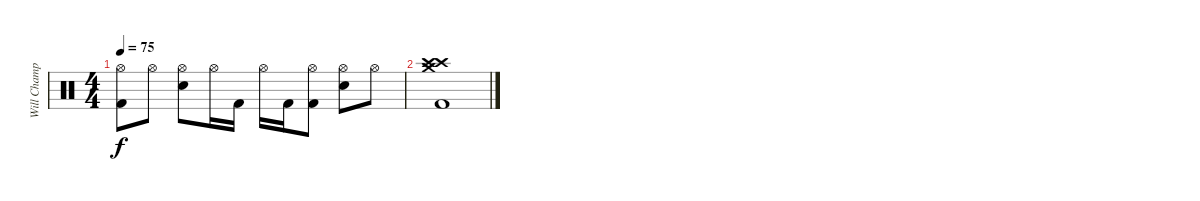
\track ("Will Champion(Drums)" "Will Champ") {instrument percussion}
\staff {score}
\articulation defaults
\ts (4 4)
\tempo 75
\clef neutral
\ks c
("Hi-Hat (open)" "Kick (hit) 2").8{dy f} "Hi-Hat (open)".8 ("Hi-Hat (open)" "Electric Snare (hit)").8 "Hi-Hat (open)".16 "Kick (hit) 2".16 "Hi-Hat (open)".16 "Kick (hit) 2".16 ("Hi-Hat (open)" "Kick (hit) 2").8 ("Hi-Hat (open)" "Electric Snare (hit)").8 "Hi-Hat (open)".8 |
("Crash high (hit)" "Crash high (hit)" "Crash medium (hit)" "Kick (hit) 2").1
